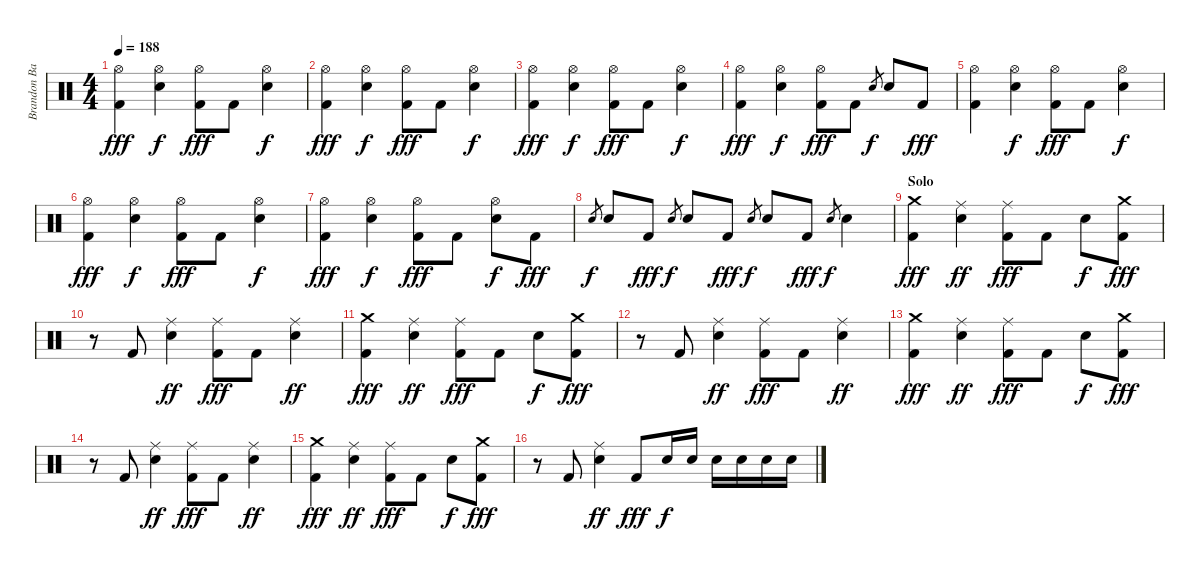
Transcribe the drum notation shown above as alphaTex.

\track ("Brandon Barnes (Drums)" "Brandon Ba") {instrument percussion}
\staff {score}
\articulation defaults
\ts (4 4)
\tempo 188
\clef neutral
\ks c
("Hi-Hat (open)" "Kick (hit) 2").4{dy fff} ("Hi-Hat (open)" "Electric Snare (hit)").4{dy f} ("Hi-Hat (open)" "Kick (hit) 2").8{dy fff} "Kick (hit) 2".8 ("Hi-Hat (open)" "Electric Snare (hit)").4{dy f} |
("Hi-Hat (open)" "Kick (hit) 2").4{dy fff} ("Hi-Hat (open)" "Electric Snare (hit)").4{dy f} ("Hi-Hat (open)" "Kick (hit) 2").8{dy fff} "Kick (hit) 2".8 ("Hi-Hat (open)" "Electric Snare (hit)").4{dy f} |
("Hi-Hat (open)" "Kick (hit) 2").4{dy fff} ("Hi-Hat (open)" "Electric Snare (hit)").4{dy f} ("Hi-Hat (open)" "Kick (hit) 2").8{dy fff} "Kick (hit) 2".8 ("Hi-Hat (open)" "Electric Snare (hit)").4{dy f} |
("Hi-Hat (open)" "Kick (hit) 2").4{dy fff} ("Hi-Hat (open)" "Electric Snare (hit)").4{dy f} ("Hi-Hat (open)" "Kick (hit) 2").8{dy fff} "Kick (hit) 2".8 "Electric Snare (hit)".8{gr dy f} "Electric Snare (hit)".8 "Kick (hit) 2".8{dy fff} |
("Hi-Hat (open)" "Kick (hit) 2").4 ("Hi-Hat (open)" "Electric Snare (hit)").4{dy f} ("Hi-Hat (open)" "Kick (hit) 2").8{dy fff} "Kick (hit) 2".8 ("Hi-Hat (open)" "Electric Snare (hit)").4{dy f} |
("Hi-Hat (open)" "Kick (hit) 2").4{dy fff} ("Hi-Hat (open)" "Electric Snare (hit)").4{dy f} ("Hi-Hat (open)" "Kick (hit) 2").8{dy fff} "Kick (hit) 2".8 ("Hi-Hat (open)" "Electric Snare (hit)").4{dy f} |
("Hi-Hat (open)" "Kick (hit) 2").4{dy fff} ("Hi-Hat (open)" "Electric Snare (hit)").4{dy f} ("Hi-Hat (open)" "Kick (hit) 2").8{dy fff} "Kick (hit) 2".8 ("Hi-Hat (open)" "Electric Snare (hit)").8{dy f} "Kick (hit) 2".8{dy fff} |
"Electric Snare (hit)".8{gr dy f} "Electric Snare (hit)".8 "Kick (hit) 2".8{dy fff} "Electric Snare (hit)".8{gr dy f} "Electric Snare (hit)".8 "Kick (hit) 2".8{dy fff} "Electric Snare (hit)".8{gr dy f} "Electric Snare (hit)".8 "Kick (hit) 2".8{dy fff} "Electric Snare (hit)".8{gr dy f} "Electric Snare (hit)".4 |
\section ("" "Solo")
("Crash medium (hit)" "Kick (hit) 2").4{dy fff} ("Ride (middle)" "Electric Snare (hit)").4{dy ff} ("Ride (middle)" "Kick (hit) 2").8{dy fff} "Kick (hit) 2".8 "Electric Snare (hit)".8{dy f} ("Crash medium (hit)" "Kick (hit) 2").8{dy fff} |
r.8 "Kick (hit) 2".8 ("Ride (middle)" "Electric Snare (hit)").4{dy ff} ("Ride (middle)" "Kick (hit) 2").8{dy fff} "Kick (hit) 2".8 ("Ride (middle)" "Electric Snare (hit)").4{dy ff} |
("Crash medium (hit)" "Kick (hit) 2").4{dy fff} ("Ride (middle)" "Electric Snare (hit)").4{dy ff} ("Ride (middle)" "Kick (hit) 2").8{dy fff} "Kick (hit) 2".8 "Electric Snare (hit)".8{dy f} ("Crash medium (hit)" "Kick (hit) 2").8{dy fff} |
r.8 "Kick (hit) 2".8 ("Ride (middle)" "Electric Snare (hit)").4{dy ff} ("Ride (middle)" "Kick (hit) 2").8{dy fff} "Kick (hit) 2".8 ("Ride (middle)" "Electric Snare (hit)").4{dy ff} |
("Crash medium (hit)" "Kick (hit) 2").4{dy fff} ("Ride (middle)" "Electric Snare (hit)").4{dy ff} ("Ride (middle)" "Kick (hit) 2").8{dy fff} "Kick (hit) 2".8 "Electric Snare (hit)".8{dy f} ("Crash medium (hit)" "Kick (hit) 2").8{dy fff} |
r.8 "Kick (hit) 2".8 ("Ride (middle)" "Electric Snare (hit)").4{dy ff} ("Ride (middle)" "Kick (hit) 2").8{dy fff} "Kick (hit) 2".8 ("Ride (middle)" "Electric Snare (hit)").4{dy ff} |
("Crash medium (hit)" "Kick (hit) 2").4{dy fff} ("Ride (middle)" "Electric Snare (hit)").4{dy ff} ("Ride (middle)" "Kick (hit) 2").8{dy fff} "Kick (hit) 2".8 "Electric Snare (hit)".8{dy f} ("Crash medium (hit)" "Kick (hit) 2").8{dy fff} |
r.8 "Kick (hit) 2".8 ("Ride (middle)" "Electric Snare (hit)").4{dy ff} "Kick (hit) 2".8{dy fff} "Electric Snare (hit)".16{dy f} "Electric Snare (hit)".16 "Electric Snare (hit)".16 "Electric Snare (hit)".16 "Electric Snare (hit)".16 "Electric Snare (hit)".16
